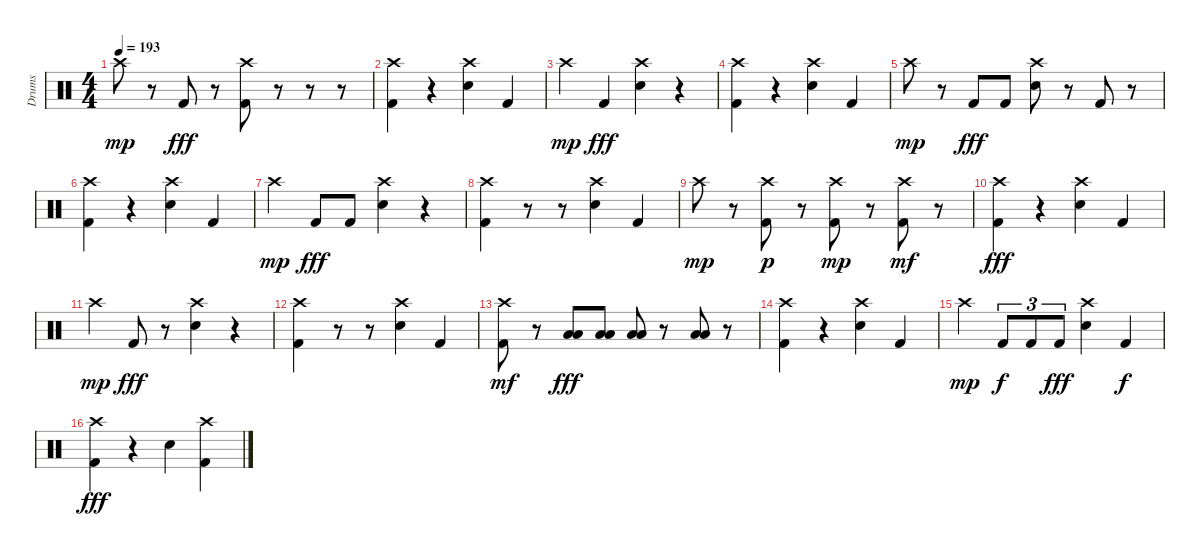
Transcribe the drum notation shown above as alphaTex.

\track ("Drums" "Drums") {instrument percussion}
\staff {score}
\articulation defaults
\ts (4 4)
\tempo 193
\clef neutral
\ks c "Crash high (hit)".8{dy mp}
r.8 "Kick (hit) 2".8{dy fff} r.8 ("Crash high (hit)" "Kick (hit) 2").8 r.8 r.8 r.8 |
("Crash high (hit)" "Kick (hit) 2").4 r.4 ("Crash high (hit)" "Snare (hit) 2").4 "Kick (hit) 2".4 |
"Crash high (hit)".4{dy mp} "Kick (hit) 2".4{dy fff} ("Crash high (hit)" "Snare (hit) 2").4 r.4 |
("Crash high (hit)" "Kick (hit) 2").4 r.4 ("Crash high (hit)" "Snare (hit) 2").4 "Kick (hit) 2".4 |
"Crash high (hit)".8{dy mp} r.8 "Kick (hit) 2".8{dy fff} "Kick (hit) 2".8 ("Crash high (hit)" "Snare (hit) 2").8 r.8 "Kick (hit) 2".8 r.8 |
("Crash high (hit)" "Kick (hit) 2").4 r.4 ("Crash high (hit)" "Snare (hit) 2").4 "Kick (hit) 2".4 |
"Crash high (hit)".4{dy mp} "Kick (hit) 2".8{dy fff} "Kick (hit) 2".8 ("Crash high (hit)" "Snare (hit) 2").4 r.4 |
("Crash high (hit)" "Kick (hit) 2").4 r.8 r.8 ("Crash high (hit)" "Snare (hit) 2").4 "Kick (hit) 2".4 |
"Crash high (hit)".8{dy mp} r.8 ("Crash high (hit)" "Kick (hit) 2").8{dy p} r.8 ("Crash high (hit)" "Kick (hit) 2").8{dy mp} r.8 ("Crash high (hit)" "Kick (hit) 2").8{dy mf} r.8 |
("Crash high (hit)" "Kick (hit) 2").4{dy fff} r.4 ("Crash high (hit)" "Snare (hit) 2").4 "Kick (hit) 2".4 |
"Crash high (hit)".4{dy mp} "Kick (hit) 2".8{dy fff} r.8 ("Crash high (hit)" "Snare (hit) 2").4 r.4 |
("Crash high (hit)" "Kick (hit) 2").4 r.8 r.8 ("Crash high (hit)" "Snare (hit) 2").4 "Kick (hit) 2".4 |
("Crash high (hit)" "Kick (hit) 2").8{dy mf} r.8 ("Low Tom (hit)" "Low Floor Tom (hit)").8{dy fff} ("Low Tom (hit)" "Low Floor Tom (hit)").8 ("Low Tom (hit)" "Low Floor Tom (hit)").8 r.8 ("Low Tom (hit)" "Low Floor Tom (hit)").8 r.8 |
("Crash high (hit)" "Kick (hit) 2").4 r.4 ("Crash high (hit)" "Snare (hit) 2").4 "Kick (hit) 2".4 |
"Crash high (hit)".4{dy mp} "Kick (hit) 2".8{tu (3 2) dy f} "Kick (hit) 2".8{tu (3 2)} "Kick (hit) 2".8{tu (3 2) dy fff} ("Crash high (hit)" "Snare (hit) 2").4 "Kick (hit) 2".4{dy f} |
("Crash high (hit)" "Kick (hit) 2").4{dy fff} r.4 "Snare (hit) 2".4 ("Crash high (hit)" "Kick (hit) 2").4
